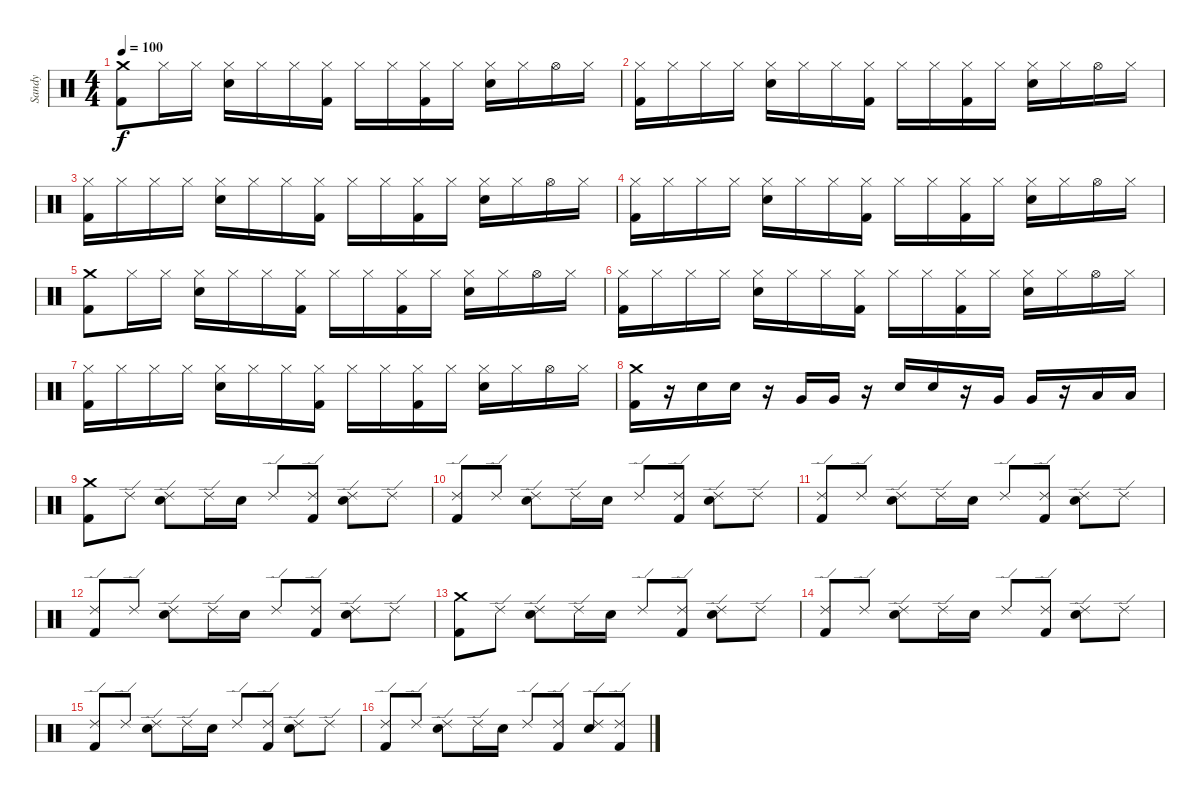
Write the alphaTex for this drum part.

\track ("Sandy" "Sandy") {instrument percussion}
\staff {score}
\articulation defaults
\ts (4 4)
\tempo 100
\clef neutral
\ks c
("Crash medium (hit)" "Kick (hit) 2").8{dy f} "Hi-Hat (closed)".16 "Hi-Hat (closed)".16 ("Hi-Hat (closed)" "Snare (hit) 2").16 "Hi-Hat (closed)".16 "Hi-Hat (closed)".16 ("Hi-Hat (closed)" "Kick (hit) 2").16 "Hi-Hat (closed)".16 "Hi-Hat (closed)".16 ("Hi-Hat (closed)" "Kick (hit) 2").16 "Hi-Hat (closed)".16 ("Hi-Hat (closed)" "Snare (hit) 2").16 "Hi-Hat (closed)".16 "Hi-Hat (open)".16 "Hi-Hat (closed)".16 |
("Hi-Hat (closed)" "Kick (hit) 2").16 "Hi-Hat (closed)".16 "Hi-Hat (closed)".16 "Hi-Hat (closed)".16 ("Hi-Hat (closed)" "Snare (hit) 2").16 "Hi-Hat (closed)".16 "Hi-Hat (closed)".16 ("Hi-Hat (closed)" "Kick (hit) 2").16 "Hi-Hat (closed)".16 "Hi-Hat (closed)".16 ("Hi-Hat (closed)" "Kick (hit) 2").16 "Hi-Hat (closed)".16 ("Hi-Hat (closed)" "Snare (hit) 2").16 "Hi-Hat (closed)".16 "Hi-Hat (open)".16 "Hi-Hat (closed)".16 |
("Hi-Hat (closed)" "Kick (hit) 2").16 "Hi-Hat (closed)".16 "Hi-Hat (closed)".16 "Hi-Hat (closed)".16 ("Hi-Hat (closed)" "Snare (hit) 2").16 "Hi-Hat (closed)".16 "Hi-Hat (closed)".16 ("Hi-Hat (closed)" "Kick (hit) 2").16 "Hi-Hat (closed)".16 "Hi-Hat (closed)".16 ("Hi-Hat (closed)" "Kick (hit) 2").16 "Hi-Hat (closed)".16 ("Hi-Hat (closed)" "Snare (hit) 2").16 "Hi-Hat (closed)".16 "Hi-Hat (open)".16 "Hi-Hat (closed)".16 |
("Hi-Hat (closed)" "Kick (hit) 2").16 "Hi-Hat (closed)".16 "Hi-Hat (closed)".16 "Hi-Hat (closed)".16 ("Hi-Hat (closed)" "Snare (hit) 2").16 "Hi-Hat (closed)".16 "Hi-Hat (closed)".16 ("Hi-Hat (closed)" "Kick (hit) 2").16 "Hi-Hat (closed)".16 "Hi-Hat (closed)".16 ("Hi-Hat (closed)" "Kick (hit) 2").16 "Hi-Hat (closed)".16 ("Hi-Hat (closed)" "Snare (hit) 2").16 "Hi-Hat (closed)".16 "Hi-Hat (open)".16 "Hi-Hat (closed)".16 |
("Crash medium (hit)" "Kick (hit) 2").8 "Hi-Hat (closed)".16 "Hi-Hat (closed)".16 ("Hi-Hat (closed)" "Snare (hit) 2").16 "Hi-Hat (closed)".16 "Hi-Hat (closed)".16 ("Hi-Hat (closed)" "Kick (hit) 2").16 "Hi-Hat (closed)".16 "Hi-Hat (closed)".16 ("Hi-Hat (closed)" "Kick (hit) 2").16 "Hi-Hat (closed)".16 ("Hi-Hat (closed)" "Snare (hit) 2").16 "Hi-Hat (closed)".16 "Hi-Hat (open)".16 "Hi-Hat (closed)".16 |
("Hi-Hat (closed)" "Kick (hit) 2").16 "Hi-Hat (closed)".16 "Hi-Hat (closed)".16 "Hi-Hat (closed)".16 ("Hi-Hat (closed)" "Snare (hit) 2").16 "Hi-Hat (closed)".16 "Hi-Hat (closed)".16 ("Hi-Hat (closed)" "Kick (hit) 2").16 "Hi-Hat (closed)".16 "Hi-Hat (closed)".16 ("Hi-Hat (closed)" "Kick (hit) 2").16 "Hi-Hat (closed)".16 ("Hi-Hat (closed)" "Snare (hit) 2").16 "Hi-Hat (closed)".16 "Hi-Hat (open)".16 "Hi-Hat (closed)".16 |
("Hi-Hat (closed)" "Kick (hit) 2").16 "Hi-Hat (closed)".16 "Hi-Hat (closed)".16 "Hi-Hat (closed)".16 ("Hi-Hat (closed)" "Snare (hit) 2").16 "Hi-Hat (closed)".16 "Hi-Hat (closed)".16 ("Hi-Hat (closed)" "Kick (hit) 2").16 "Hi-Hat (closed)".16 "Hi-Hat (closed)".16 ("Hi-Hat (closed)" "Kick (hit) 2").16 "Hi-Hat (closed)".16 ("Hi-Hat (closed)" "Snare (hit) 2").16 "Hi-Hat (closed)".16 "Hi-Hat (open)".16 "Hi-Hat (closed)".16 |
("Crash medium (hit)" "Kick (hit) 2").16 r.16 "Electric Snare (hit)".16 "Electric Snare (hit)".16 r.16 "Very Low Tom (hit)".16 "Very Low Tom (hit)".16 r.16 "Electric Snare (hit)".16 "Electric Snare (hit)".16 r.16 "Very Low Tom (hit)".16 "Very Low Tom (hit)".16 r.16 "Low Floor Tom (hit)".16 "Low Floor Tom (hit)".16 |
("Crash medium (hit)" "Kick (hit) 2").8 "Ride (edge) 2".8 ("Ride (edge) 2" "Snare (hit) 2").8 "Ride (edge) 2".16 "Snare (hit) 2".16 "Ride (edge) 2".8 ("Ride (edge) 2" "Kick (hit) 2").8 ("Ride (edge) 2" "Snare (hit) 2").8 "Ride (edge) 2".8 |
("Ride (edge) 2" "Kick (hit) 2").8 "Ride (edge) 2".8 ("Ride (edge) 2" "Snare (hit) 2").8 "Ride (edge) 2".16 "Snare (hit) 2".16 "Ride (edge) 2".8 ("Ride (edge) 2" "Kick (hit) 2").8 ("Ride (edge) 2" "Snare (hit) 2").8 "Ride (edge) 2".8 |
("Ride (edge) 2" "Kick (hit) 2").8 "Ride (edge) 2".8 ("Ride (edge) 2" "Snare (hit) 2").8 "Ride (edge) 2".16 "Snare (hit) 2".16 "Ride (edge) 2".8 ("Ride (edge) 2" "Kick (hit) 2").8 ("Ride (edge) 2" "Snare (hit) 2").8 "Ride (edge) 2".8 |
("Ride (edge) 2" "Kick (hit) 2").8 "Ride (edge) 2".8 ("Ride (edge) 2" "Snare (hit) 2").8 "Ride (edge) 2".16 "Snare (hit) 2".16 "Ride (edge) 2".8 ("Ride (edge) 2" "Kick (hit) 2").8 ("Ride (edge) 2" "Snare (hit) 2").8 "Ride (edge) 2".8 |
("Crash medium (hit)" "Kick (hit) 2").8 "Ride (edge) 2".8 ("Ride (edge) 2" "Snare (hit) 2").8 "Ride (edge) 2".16 "Snare (hit) 2".16 "Ride (edge) 2".8 ("Ride (edge) 2" "Kick (hit) 2").8 ("Ride (edge) 2" "Snare (hit) 2").8 "Ride (edge) 2".8 |
("Ride (edge) 2" "Kick (hit) 2").8 "Ride (edge) 2".8 ("Ride (edge) 2" "Snare (hit) 2").8 "Ride (edge) 2".16 "Snare (hit) 2".16 "Ride (edge) 2".8 ("Ride (edge) 2" "Kick (hit) 2").8 ("Ride (edge) 2" "Snare (hit) 2").8 "Ride (edge) 2".8 |
("Ride (edge) 2" "Kick (hit) 2").8 "Ride (edge) 2".8 ("Ride (edge) 2" "Snare (hit) 2").8 "Ride (edge) 2".16 "Snare (hit) 2".16 "Ride (edge) 2".8 ("Ride (edge) 2" "Kick (hit) 2").8 ("Ride (edge) 2" "Snare (hit) 2").8 "Ride (edge) 2".8 |
("Ride (edge) 2" "Kick (hit) 2").8 "Ride (edge) 2".8 ("Ride (edge) 2" "Snare (hit) 2").8 "Ride (edge) 2".16 "Snare (hit) 2".16 "Ride (edge) 2".8 ("Ride (edge) 2" "Kick (hit) 2").8 ("Ride (edge) 2" "Snare (hit) 2").8 ("Ride (edge) 2" "Kick (hit) 2").8
